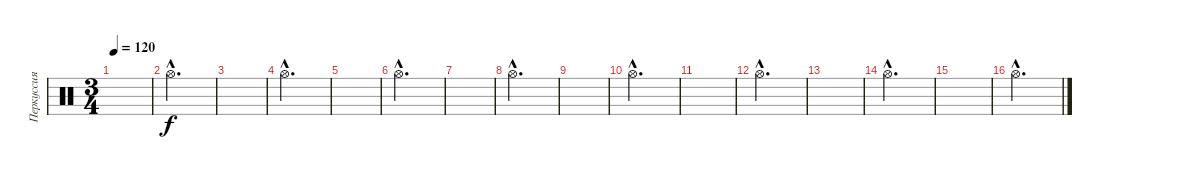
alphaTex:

\track ("Перкуссия" "Перкуссия") {instrument percussion}
\staff {score}
\articulation defaults
\ts (3 4)
\tempo 120
\clef neutral
\ks c
|
"Hi-Hat (open)"{hac}.2{d} |
|
"Hi-Hat (open)"{hac}.2{d} |
|
"Hi-Hat (open)"{hac}.2{d} |
|
"Hi-Hat (open)"{hac}.2{d} |
|
"Hi-Hat (open)"{hac}.2{d} |
|
"Hi-Hat (open)"{hac}.2{d} |
|
"Hi-Hat (open)"{hac}.2{d} |
|
"Hi-Hat (open)"{hac}.2{d}
